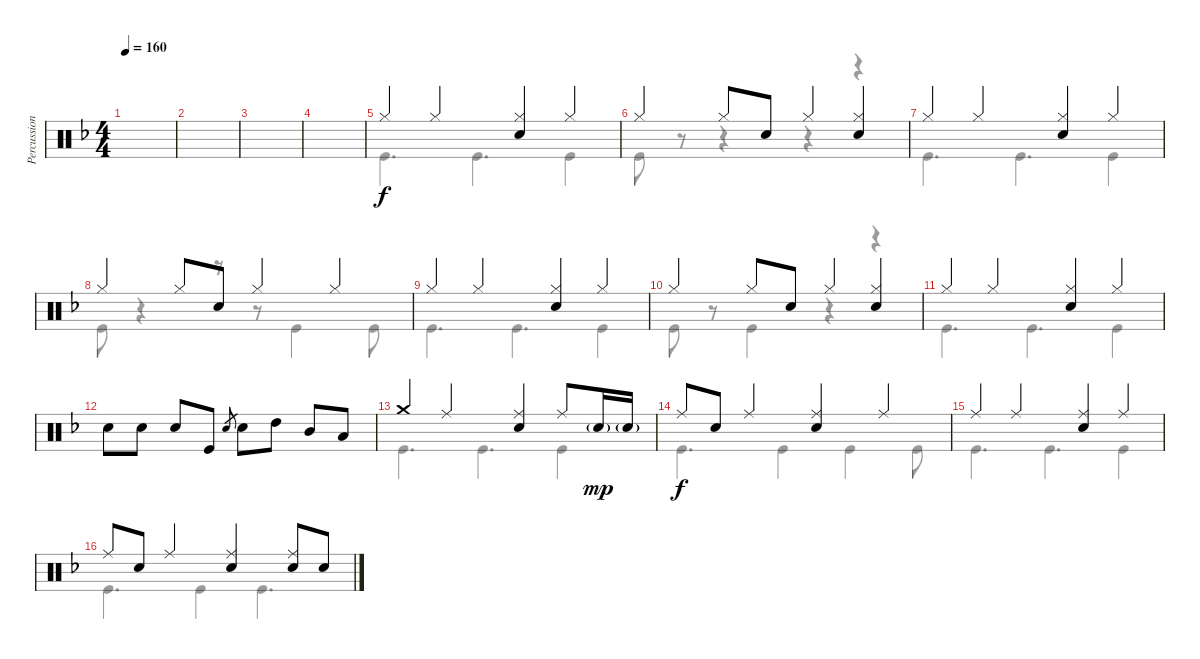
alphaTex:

\track ("Percussion" "Percussion") {instrument percussion}
\staff {score}
\articulation defaults
\voice
\ts (4 4)
\tempo 160
\clef neutral
\ks dminor
|
|
|
|
"Hi-Hat (closed)".4 "Hi-Hat (closed)".4 ("Hi-Hat (closed)" "Snare (hit) 2").4 "Hi-Hat (closed)".4 |
"Hi-Hat (closed)".4 "Hi-Hat (closed)".8 "Snare (hit) 2".8 "Hi-Hat (closed)".4 ("Hi-Hat (closed)" "Snare (hit) 2").4 |
"Hi-Hat (closed)".4 "Hi-Hat (closed)".4 ("Hi-Hat (closed)" "Snare (hit) 2").4 "Hi-Hat (closed)".4 |
"Hi-Hat (closed)".4 "Hi-Hat (closed)".8 "Snare (hit) 2".8 "Hi-Hat (closed)".4 "Hi-Hat (closed)".4 |
"Hi-Hat (closed)".4 "Hi-Hat (closed)".4 ("Hi-Hat (closed)" "Snare (hit) 2").4 "Hi-Hat (closed)".4 |
"Hi-Hat (closed)".4 "Hi-Hat (closed)".8 "Snare (hit) 2".8 "Hi-Hat (closed)".4 ("Hi-Hat (closed)" "Snare (hit) 2").4 |
"Hi-Hat (closed)".4 "Hi-Hat (closed)".4 ("Hi-Hat (closed)" "Snare (hit) 2").4 "Hi-Hat (closed)".4 |
"Snare (hit) 2".8 "Snare (hit) 2".8 "Snare (hit) 2".8 "Kick (hit)".8 "Snare (hit) 2".8{gr} "Snare (hit) 2".8 "High Tom (hit)".8 "Mid Tom (hit)".8 "Low Tom (hit)".8 |
"Crash medium (hit)".4 "Ride (middle)".4 ("Ride (middle)" "Snare (hit) 2").4 "Ride (middle)".8 "Snare (hit) 2"{g}.16{dy mp} "Snare (hit) 2"{g}.16 |
"Ride (middle)".8{dy f} "Snare (hit) 2".8 "Ride (middle)".4 ("Ride (middle)" "Snare (hit) 2").4 "Ride (middle)".4 |
"Ride (middle)".4 "Ride (middle)".4 ("Ride (middle)" "Snare (hit) 2").4 "Ride (middle)".4 |
"Ride (middle)".8 "Snare (hit) 2".8 "Ride (middle)".4 ("Ride (middle)" "Snare (hit) 2").4 ("Ride (middle)" "Snare (hit) 2").8 "Snare (hit) 2".8
\voice
\clef neutral
\ottava regular
\simile none
\ks dminor
|
|
|
|
"Kick (hit)".4{d} "Kick (hit)".4{d} "Kick (hit)".4 |
"Kick (hit)".8 r.8 r.4 r.4 r.4 |
"Kick (hit)".4{d} "Kick (hit)".4{d} "Kick (hit)".4 |
"Kick (hit)".8 r.4 r.8 r.8 "Kick (hit)".4 "Kick (hit)".8 |
"Kick (hit)".4{d} "Kick (hit)".4{d} "Kick (hit)".4 |
"Kick (hit)".8 r.8 "Kick (hit)".4 r.4 r.4 |
"Kick (hit)".4{d} "Kick (hit)".4{d} "Kick (hit)".4 |
|
"Kick (hit)".4{d} "Kick (hit)".4{d} "Kick (hit)".4 |
"Kick (hit)".4{d} "Kick (hit)".4 "Kick (hit)".4 "Kick (hit)".8 |
"Kick (hit)".4{d} "Kick (hit)".4{d} "Kick (hit)".4 |
"Kick (hit)".4{d} "Kick (hit)".4 "Kick (hit)".4{d}
